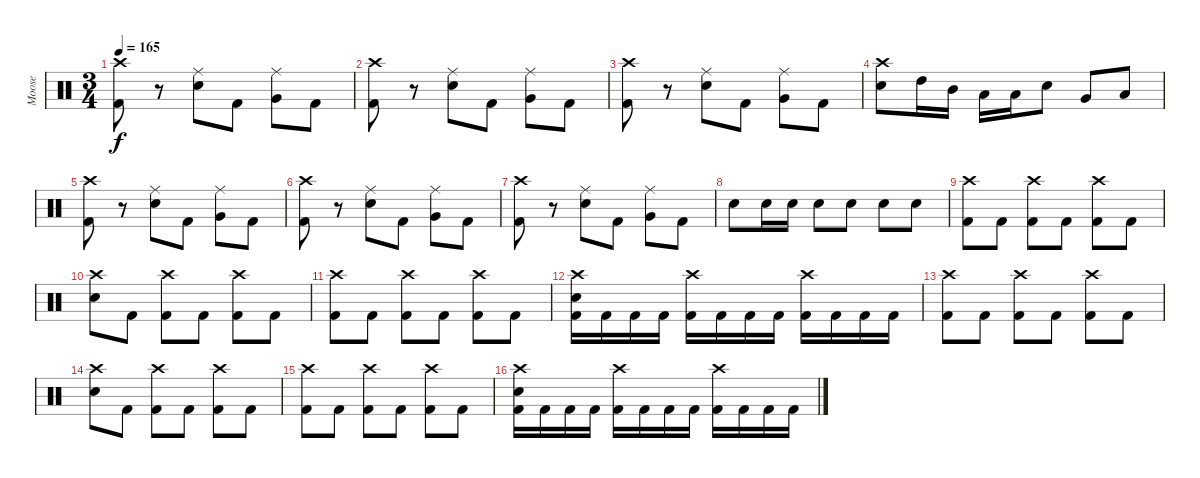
\track ("Moose" "Moose") {instrument percussion}
\staff {score}
\articulation defaults
\ts (3 4)
\tempo 165
\clef neutral
\ks c
("Crash high (hit)" "Kick (hit) 2").8{dy f} r.8 ("Ride (middle)" "Electric Snare (hit)").8 "Kick (hit) 2".8 ("Ride (middle)" "Very Low Tom (hit)").8 "Kick (hit) 2".8 |
("Crash high (hit)" "Kick (hit) 2").8 r.8 ("Ride (middle)" "Electric Snare (hit)").8 "Kick (hit) 2".8 ("Ride (middle)" "Very Low Tom (hit)").8 "Kick (hit) 2".8 |
("Crash high (hit)" "Kick (hit) 2").8 r.8 ("Ride (middle)" "Electric Snare (hit)").8 "Kick (hit) 2".8 ("Ride (middle)" "Very Low Tom (hit)").8 "Kick (hit) 2".8 |
("Crash high (hit)" "Electric Snare (hit)").8 "High Tom (hit)".16 "Mid Tom (hit)".16 "Low Tom (hit)".16 "Low Tom (hit)".16 "Electric Snare (hit)".8 "Very Low Tom (hit)".8 "Low Floor Tom (hit)".8 |
("Crash high (hit)" "Kick (hit) 2").8 r.8 ("Ride (middle)" "Electric Snare (hit)").8 "Kick (hit) 2".8 ("Ride (middle)" "Very Low Tom (hit)").8 "Kick (hit) 2".8 |
("Crash high (hit)" "Kick (hit) 2").8 r.8 ("Ride (middle)" "Electric Snare (hit)").8 "Kick (hit) 2".8 ("Ride (middle)" "Very Low Tom (hit)").8 "Kick (hit) 2".8 |
("Crash high (hit)" "Kick (hit) 2").8 r.8 ("Ride (middle)" "Electric Snare (hit)").8 "Kick (hit) 2".8 ("Ride (middle)" "Very Low Tom (hit)").8 "Kick (hit) 2".8 |
"Electric Snare (hit)".8 "Electric Snare (hit)".16 "Electric Snare (hit)".16 "Electric Snare (hit)".8 "Electric Snare (hit)".8 "Electric Snare (hit)".8 "Electric Snare (hit)".8 |
("Crash high (hit)" "Kick (hit) 2").8 "Kick (hit) 2".8 ("Crash high (hit)" "Kick (hit) 2").8 "Kick (hit) 2".8 ("Crash high (hit)" "Kick (hit) 2").8 "Kick (hit) 2".8 |
("Crash high (hit)" "Electric Snare (hit)").8 "Kick (hit) 2".8 ("Crash high (hit)" "Kick (hit) 2").8 "Kick (hit) 2".8 ("Crash high (hit)" "Kick (hit) 2").8 "Kick (hit) 2".8 |
("Crash high (hit)" "Kick (hit) 2").8 "Kick (hit) 2".8 ("Crash high (hit)" "Kick (hit) 2").8 "Kick (hit) 2".8 ("Crash high (hit)" "Kick (hit) 2").8 "Kick (hit) 2".8 |
("Crash high (hit)" "Electric Snare (hit)" "Kick (hit) 2").16 "Kick (hit) 2".16 "Kick (hit) 2".16 "Kick (hit) 2".16 ("Crash high (hit)" "Kick (hit) 2").16 "Kick (hit) 2".16 "Kick (hit) 2".16 "Kick (hit) 2".16 ("Crash high (hit)" "Kick (hit) 2").16 "Kick (hit) 2".16 "Kick (hit) 2".16 "Kick (hit) 2".16 |
("Crash high (hit)" "Kick (hit) 2").8 "Kick (hit) 2".8 ("Crash high (hit)" "Kick (hit) 2").8 "Kick (hit) 2".8 ("Crash high (hit)" "Kick (hit) 2").8 "Kick (hit) 2".8 |
("Crash high (hit)" "Electric Snare (hit)").8 "Kick (hit) 2".8 ("Crash high (hit)" "Kick (hit) 2").8 "Kick (hit) 2".8 ("Crash high (hit)" "Kick (hit) 2").8 "Kick (hit) 2".8 |
("Crash high (hit)" "Kick (hit) 2").8 "Kick (hit) 2".8 ("Crash high (hit)" "Kick (hit) 2").8 "Kick (hit) 2".8 ("Crash high (hit)" "Kick (hit) 2").8 "Kick (hit) 2".8 |
("Crash high (hit)" "Electric Snare (hit)" "Kick (hit) 2").16 "Kick (hit) 2".16 "Kick (hit) 2".16 "Kick (hit) 2".16 ("Crash high (hit)" "Kick (hit) 2").16 "Kick (hit) 2".16 "Kick (hit) 2".16 "Kick (hit) 2".16 ("Crash high (hit)" "Kick (hit) 2").16 "Kick (hit) 2".16 "Kick (hit) 2".16 "Kick (hit) 2".16
